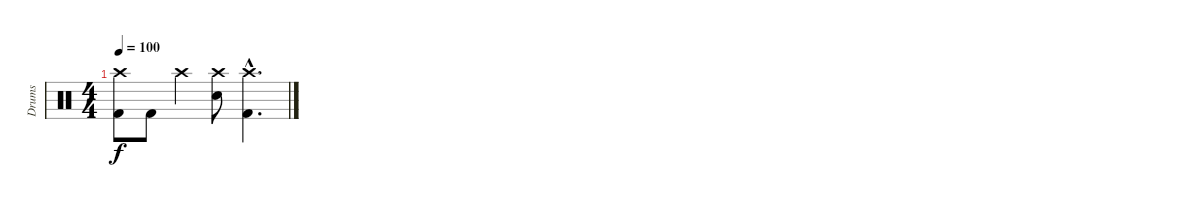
\track ("Drums" "Drums") {instrument percussion}
\staff {score}
\articulation defaults
\ts (4 4)
\tempo 100
\clef neutral
\ks c
("Crash high (hit)" "Kick (hit) 2").8{dy f} "Kick (hit) 2".8 "Crash high (hit)".4 ("Crash high (hit)" "Electric Snare (hit)").8 ("Crash high (hit)"{hac} "Kick (hit) 2"{hac}).4{d}
